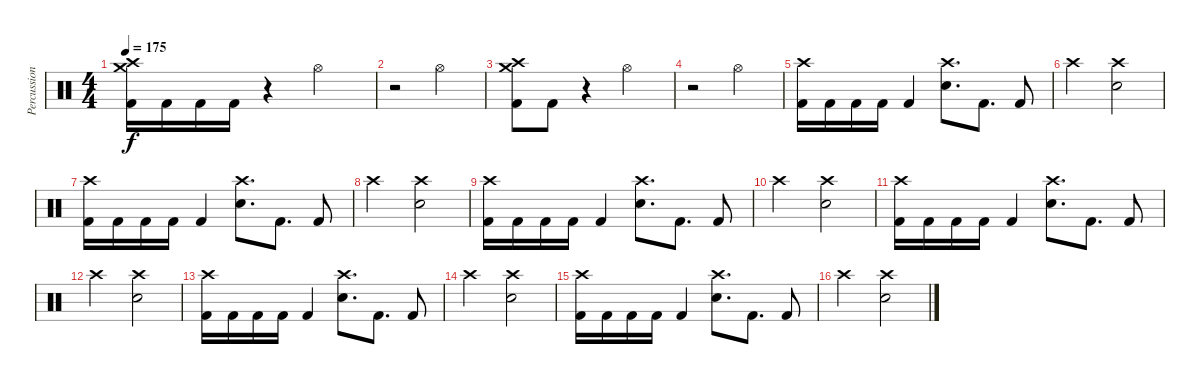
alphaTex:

\track ("Percussion" "Percussion") {instrument percussion}
\staff {score}
\articulation defaults
\ts (4 4)
\tempo 175
\clef neutral
\ks c
("Crash high (hit)" "Crash medium (hit)" "Kick (hit) 2").16{dy f} "Kick (hit) 2".16 "Kick (hit) 2".16 "Kick (hit) 2".16 r.4 "Hi-Hat (open)".2 |
r.2 "Hi-Hat (open)".2 |
("Crash medium (hit)" "Crash high (hit)" "Kick (hit) 2").8 "Kick (hit) 2".8 r.4 "Hi-Hat (open)".2 |
r.2 "Hi-Hat (open)".2 |
("Crash high (hit)" "Kick (hit) 2").16 "Kick (hit) 2".16 "Kick (hit) 2".16 "Kick (hit) 2".16 "Kick (hit) 2".4 ("Crash high (hit)" "Electric Snare (hit)").8{d} "Kick (hit) 2".8{d} "Kick (hit) 2".8 |
"Crash high (hit)".2 ("Crash high (hit)" "Electric Snare (hit)").2 |
("Crash high (hit)" "Kick (hit) 2").16 "Kick (hit) 2".16 "Kick (hit) 2".16 "Kick (hit) 2".16 "Kick (hit) 2".4 ("Crash high (hit)" "Electric Snare (hit)").8{d} "Kick (hit) 2".8{d} "Kick (hit) 2".8 |
"Crash high (hit)".2 ("Crash high (hit)" "Electric Snare (hit)").2 |
("Crash high (hit)" "Kick (hit) 2").16 "Kick (hit) 2".16 "Kick (hit) 2".16 "Kick (hit) 2".16 "Kick (hit) 2".4 ("Crash high (hit)" "Electric Snare (hit)").8{d} "Kick (hit) 2".8{d} "Kick (hit) 2".8 |
"Crash high (hit)".2 ("Crash high (hit)" "Electric Snare (hit)").2 |
("Crash high (hit)" "Kick (hit) 2").16 "Kick (hit) 2".16 "Kick (hit) 2".16 "Kick (hit) 2".16 "Kick (hit) 2".4 ("Crash high (hit)" "Electric Snare (hit)").8{d} "Kick (hit) 2".8{d} "Kick (hit) 2".8 |
"Crash high (hit)".2 ("Crash high (hit)" "Electric Snare (hit)").2 |
("Crash high (hit)" "Kick (hit) 2").16 "Kick (hit) 2".16 "Kick (hit) 2".16 "Kick (hit) 2".16 "Kick (hit) 2".4 ("Crash high (hit)" "Electric Snare (hit)").8{d} "Kick (hit) 2".8{d} "Kick (hit) 2".8 |
"Crash high (hit)".2 ("Crash high (hit)" "Electric Snare (hit)").2 |
("Crash high (hit)" "Kick (hit) 2").16 "Kick (hit) 2".16 "Kick (hit) 2".16 "Kick (hit) 2".16 "Kick (hit) 2".4 ("Crash high (hit)" "Electric Snare (hit)").8{d} "Kick (hit) 2".8{d} "Kick (hit) 2".8 |
"Crash high (hit)".2 ("Crash high (hit)" "Electric Snare (hit)").2
